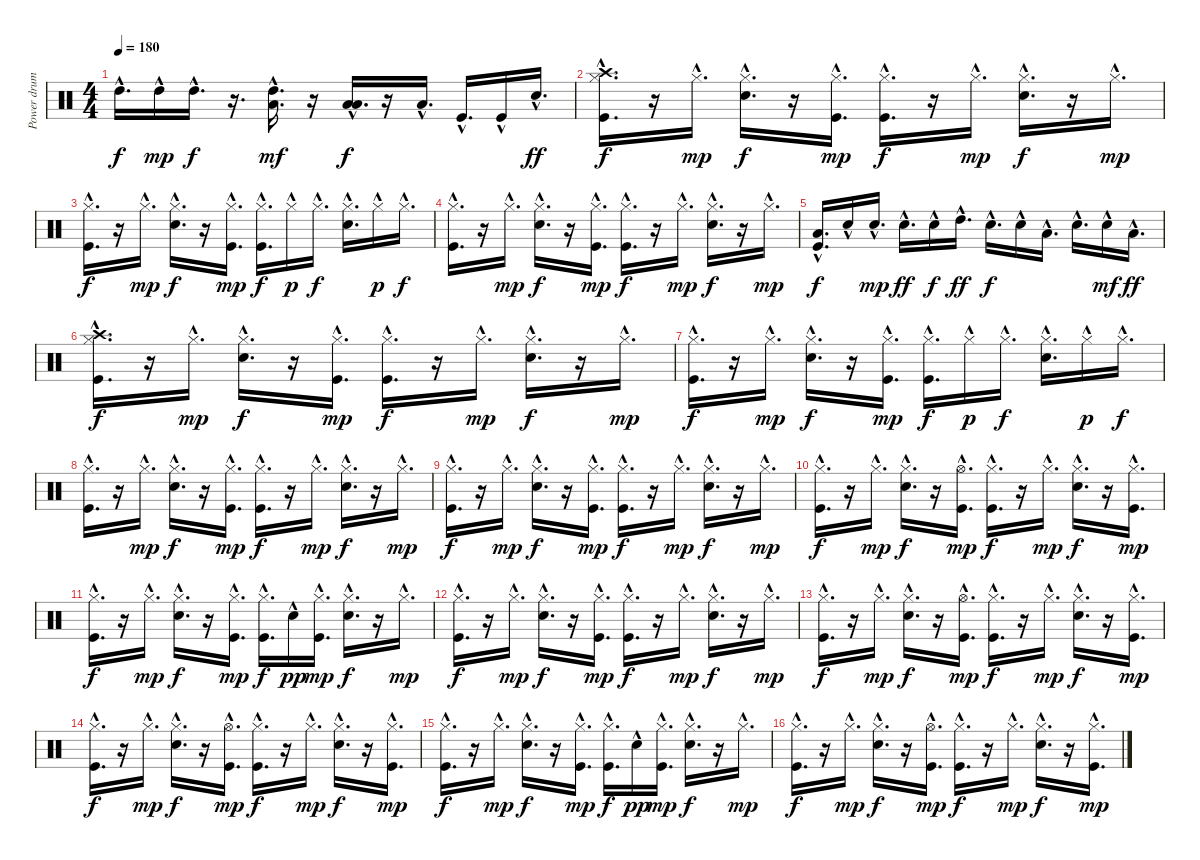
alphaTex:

\track ("Power drum" "Power drum") {instrument percussion}
\staff {score}
\articulation defaults
\ts (4 4)
\tempo 180
\clef neutral
\ks c "High Tom (hit)"{hac}.16{d dy f} "High Tom (hit)"{hac}.16{dy mp} "High Tom (hit)"{hac}.16{d dy f}
r.16{d} ("Low Tom (hit)"{hac} "High Tom (hit)"{hac}).16{d dy mf} r.16 ("Low Floor Tom (hit)"{hac} "Low Tom (hit)"{hac}).16{d dy f} r.16 "Low Floor Tom (hit)"{hac}.16{d} "Kick (hit)"{hac}.16{d} "Kick (hit)"{hac}.16 "Snare (hit) 2"{hac}.16{d dy ff} |
("Kick (hit)"{hac} "Hi-Hat (closed)"{hac} "Crash high (hit)"{hac}).16{d dy f} r.16 "Hi-Hat (closed)"{hac}.16{d dy mp} ("Snare (hit) 2"{hac} "Hi-Hat (closed)"{hac}).16{d dy f} r.16 ("Kick (hit)"{hac} "Hi-Hat (closed)"{hac}).16{d dy mp} ("Kick (hit)"{hac} "Hi-Hat (closed)"{hac}).16{d dy f} r.16 "Hi-Hat (closed)"{hac}.16{d dy mp} ("Snare (hit) 2"{hac} "Hi-Hat (closed)"{hac}).16{d dy f} r.16 "Hi-Hat (closed)"{hac}.16{d dy mp} |
("Kick (hit)"{hac} "Hi-Hat (closed)"{hac}).16{d dy f} r.16 "Hi-Hat (closed)"{hac}.16{d dy mp} ("Snare (hit) 2"{hac} "Hi-Hat (closed)"{hac}).16{d dy f} r.16 ("Kick (hit)"{hac} "Hi-Hat (closed)"{hac}).16{d dy mp} ("Kick (hit)"{hac} "Hi-Hat (closed)"{hac}).16{d dy f} "Hi-Hat (closed)"{hac}.16{dy p} "Hi-Hat (closed)"{hac}.16{d dy f} ("Snare (hit) 2"{hac} "Hi-Hat (closed)"{hac}).16{d} "Hi-Hat (closed)"{hac}.16{dy p} "Hi-Hat (closed)"{hac}.16{d dy f} |
("Kick (hit)"{hac} "Hi-Hat (closed)"{hac}).16{d} r.16 "Hi-Hat (closed)"{hac}.16{d dy mp} ("Snare (hit) 2"{hac} "Hi-Hat (closed)"{hac}).16{d dy f} r.16 ("Kick (hit)"{hac} "Hi-Hat (closed)"{hac}).16{d dy mp} ("Kick (hit)"{hac} "Hi-Hat (closed)"{hac}).16{d dy f} r.16 "Hi-Hat (closed)"{hac}.16{d dy mp} ("Snare (hit) 2"{hac} "Hi-Hat (closed)"{hac}).16{d dy f} r.16 "Hi-Hat (closed)"{hac}.16{d dy mp} |
("Kick (hit)"{hac} "Low Tom (hit)"{hac}).16{d dy f} "Snare (hit) 2"{hac}.16 "Snare (hit) 2"{hac}.16{d dy mp} "Snare (hit) 2"{hac}.16{d dy ff} "Snare (hit) 2"{hac}.16{dy f} "High Tom (hit)"{hac}.16{d dy ff} "Snare (hit) 2"{hac}.16{d dy f} "Snare (hit) 2"{hac}.16 "Low Tom (hit)"{hac}.16{d} "Snare (hit) 2"{hac}.16{d} "Snare (hit) 2"{hac}.16{dy mf} "Low Floor Tom (hit)"{hac}.16{d dy ff} |
("Kick (hit)"{hac} "Hi-Hat (closed)"{hac} "Crash high (hit)"{hac}).16{d dy f} r.16 "Hi-Hat (closed)"{hac}.16{d dy mp} ("Snare (hit) 2"{hac} "Hi-Hat (closed)"{hac}).16{d dy f} r.16 ("Kick (hit)"{hac} "Hi-Hat (closed)"{hac}).16{d dy mp} ("Kick (hit)"{hac} "Hi-Hat (closed)"{hac}).16{d dy f} r.16 "Hi-Hat (closed)"{hac}.16{d dy mp} ("Snare (hit) 2"{hac} "Hi-Hat (closed)"{hac}).16{d dy f} r.16 "Hi-Hat (closed)"{hac}.16{d dy mp} |
("Kick (hit)"{hac} "Hi-Hat (closed)"{hac}).16{d dy f} r.16 "Hi-Hat (closed)"{hac}.16{d dy mp} ("Snare (hit) 2"{hac} "Hi-Hat (closed)"{hac}).16{d dy f} r.16 ("Kick (hit)"{hac} "Hi-Hat (closed)"{hac}).16{d dy mp} ("Kick (hit)"{hac} "Hi-Hat (closed)"{hac}).16{d dy f} "Hi-Hat (closed)"{hac}.16{dy p} "Hi-Hat (closed)"{hac}.16{d dy f} ("Snare (hit) 2"{hac} "Hi-Hat (closed)"{hac}).16{d} "Hi-Hat (closed)"{hac}.16{dy p} "Hi-Hat (closed)"{hac}.16{d dy f} |
("Kick (hit)"{hac} "Hi-Hat (closed)"{hac}).16{d} r.16 "Hi-Hat (closed)"{hac}.16{d dy mp} ("Snare (hit) 2"{hac} "Hi-Hat (closed)"{hac}).16{d dy f} r.16 ("Kick (hit)"{hac} "Hi-Hat (closed)"{hac}).16{d dy mp} ("Kick (hit)"{hac} "Hi-Hat (closed)"{hac}).16{d dy f} r.16 "Hi-Hat (closed)"{hac}.16{d dy mp} ("Snare (hit) 2"{hac} "Hi-Hat (closed)"{hac}).16{d dy f} r.16 "Hi-Hat (closed)"{hac}.16{d dy mp} |
("Kick (hit)"{hac} "Hi-Hat (closed)"{hac}).16{d dy f} r.16 "Hi-Hat (closed)"{hac}.16{d dy mp} ("Snare (hit) 2"{hac} "Hi-Hat (closed)"{hac}).16{d dy f} r.16 ("Kick (hit)"{hac} "Hi-Hat (closed)"{hac}).16{d dy mp} ("Kick (hit)"{hac} "Hi-Hat (closed)"{hac}).16{d dy f} r.16 "Hi-Hat (closed)"{hac}.16{d dy mp} ("Snare (hit) 2"{hac} "Hi-Hat (closed)"{hac}).16{d dy f} r.16 "Hi-Hat (closed)"{hac}.16{d dy mp} |
("Kick (hit)"{hac} "Hi-Hat (closed)"{hac}).16{d dy f} r.16 "Hi-Hat (closed)"{hac}.16{d dy mp} ("Snare (hit) 2"{hac} "Hi-Hat (closed)"{hac}).16{d dy f} r.16 ("Kick (hit)"{hac} "Hi-Hat (open)"{hac}).16{d dy mp} ("Kick (hit)"{hac} "Hi-Hat (closed)"{hac}).16{d dy f} r.16 "Hi-Hat (closed)"{hac}.16{d dy mp} ("Snare (hit) 2"{hac} "Hi-Hat (closed)"{hac}).16{d dy f} r.16 ("Kick (hit)"{hac} "Hi-Hat (closed)"{hac}).16{d dy mp} |
("Kick (hit)"{hac} "Hi-Hat (closed)"{hac}).16{d dy f} r.16 "Hi-Hat (closed)"{hac}.16{d dy mp} ("Snare (hit) 2"{hac} "Hi-Hat (closed)"{hac}).16{d dy f} r.16 ("Kick (hit)"{hac} "Hi-Hat (closed)"{hac}).16{d dy mp} ("Kick (hit)"{hac} "Hi-Hat (closed)"{hac}).16{d dy f} "Snare (hit) 2"{hac}.16{dy pp} ("Kick (hit)"{hac} "Hi-Hat (closed)"{hac}).16{d dy mp} ("Snare (hit) 2"{hac} "Hi-Hat (closed)"{hac}).16{d dy f} r.16 "Hi-Hat (closed)"{hac}.16{d dy mp} |
("Kick (hit)"{hac} "Hi-Hat (closed)"{hac}).16{d dy f} r.16 "Hi-Hat (closed)"{hac}.16{d dy mp} ("Snare (hit) 2"{hac} "Hi-Hat (closed)"{hac}).16{d dy f} r.16 ("Kick (hit)"{hac} "Hi-Hat (closed)"{hac}).16{d dy mp} ("Kick (hit)"{hac} "Hi-Hat (closed)"{hac}).16{d dy f} r.16 "Hi-Hat (closed)"{hac}.16{d dy mp} ("Snare (hit) 2"{hac} "Hi-Hat (closed)"{hac}).16{d dy f} r.16 "Hi-Hat (closed)"{hac}.16{d dy mp} |
("Kick (hit)"{hac} "Hi-Hat (closed)"{hac}).16{d dy f} r.16 "Hi-Hat (closed)"{hac}.16{d dy mp} ("Snare (hit) 2"{hac} "Hi-Hat (closed)"{hac}).16{d dy f} r.16 ("Kick (hit)"{hac} "Hi-Hat (open)"{hac}).16{d dy mp} ("Kick (hit)"{hac} "Hi-Hat (closed)"{hac}).16{d dy f} r.16 "Hi-Hat (closed)"{hac}.16{d dy mp} ("Snare (hit) 2"{hac} "Hi-Hat (closed)"{hac}).16{d dy f} r.16 ("Kick (hit)"{hac} "Hi-Hat (closed)"{hac}).16{d dy mp} |
("Kick (hit)"{hac} "Hi-Hat (closed)"{hac}).16{d dy f} r.16 "Hi-Hat (closed)"{hac}.16{d dy mp} ("Snare (hit) 2"{hac} "Hi-Hat (closed)"{hac}).16{d dy f} r.16 ("Kick (hit)"{hac} "Hi-Hat (open)"{hac}).16{d dy mp} ("Kick (hit)"{hac} "Hi-Hat (closed)"{hac}).16{d dy f} r.16 "Hi-Hat (closed)"{hac}.16{d dy mp} ("Snare (hit) 2"{hac} "Hi-Hat (closed)"{hac}).16{d dy f} r.16 ("Kick (hit)"{hac} "Hi-Hat (closed)"{hac}).16{d dy mp} |
("Kick (hit)"{hac} "Hi-Hat (closed)"{hac}).16{d dy f} r.16 "Hi-Hat (closed)"{hac}.16{d dy mp} ("Snare (hit) 2"{hac} "Hi-Hat (closed)"{hac}).16{d dy f} r.16 ("Kick (hit)"{hac} "Hi-Hat (closed)"{hac}).16{d dy mp} ("Kick (hit)"{hac} "Hi-Hat (closed)"{hac}).16{d dy f} "Snare (hit) 2"{hac}.16{dy pp} ("Kick (hit)"{hac} "Hi-Hat (closed)"{hac}).16{d dy mp} ("Snare (hit) 2"{hac} "Hi-Hat (closed)"{hac}).16{d dy f} r.16 "Hi-Hat (closed)"{hac}.16{d dy mp} |
("Kick (hit)"{hac} "Hi-Hat (closed)"{hac}).16{d dy f} r.16 "Hi-Hat (closed)"{hac}.16{d dy mp} ("Snare (hit) 2"{hac} "Hi-Hat (closed)"{hac}).16{d dy f} r.16 ("Kick (hit)"{hac} "Hi-Hat (open)"{hac}).16{d dy mp} ("Kick (hit)"{hac} "Hi-Hat (closed)"{hac}).16{d dy f} r.16 "Hi-Hat (closed)"{hac}.16{d dy mp} ("Snare (hit) 2"{hac} "Hi-Hat (closed)"{hac}).16{d dy f} r.16 ("Kick (hit)"{hac} "Hi-Hat (closed)"{hac}).16{d dy mp}
